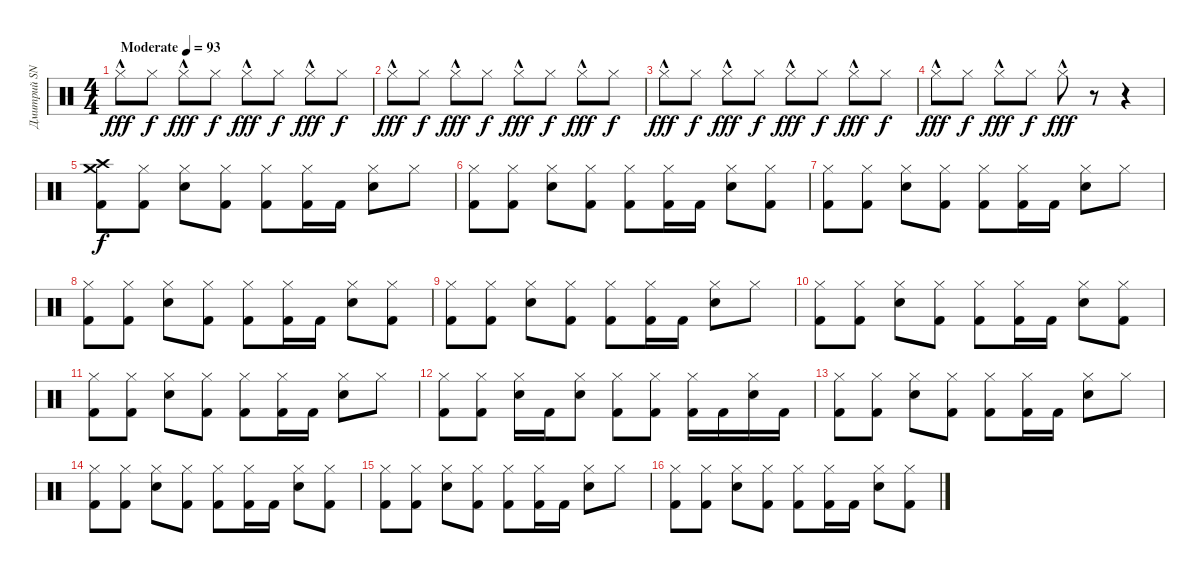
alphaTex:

\track ("Дмитрий SNAKE Хакимов" "Дмитрий SN") {instrument percussion}
\staff {score}
\articulation defaults
\ts (4 4)
\tempo (93 "Moderate")
\clef neutral
\ks c "Hi-Hat (closed)"{hac}.8{dy fff} "Hi-Hat (closed)".8{dy f} "Hi-Hat (closed)"{hac}.8{dy fff} "Hi-Hat (closed)".8{dy f} "Hi-Hat (closed)"{hac}.8{dy fff} "Hi-Hat (closed)".8{dy f} "Hi-Hat (closed)"{hac}.8{dy fff} "Hi-Hat (closed)".8{dy f}
|
"Hi-Hat (closed)"{hac}.8{dy fff} "Hi-Hat (closed)".8{dy f} "Hi-Hat (closed)"{hac}.8{dy fff} "Hi-Hat (closed)".8{dy f} "Hi-Hat (closed)"{hac}.8{dy fff} "Hi-Hat (closed)".8{dy f} "Hi-Hat (closed)"{hac}.8{dy fff} "Hi-Hat (closed)".8{dy f} |
"Hi-Hat (closed)"{hac}.8{dy fff} "Hi-Hat (closed)".8{dy f} "Hi-Hat (closed)"{hac}.8{dy fff} "Hi-Hat (closed)".8{dy f} "Hi-Hat (closed)"{hac}.8{dy fff} "Hi-Hat (closed)".8{dy f} "Hi-Hat (closed)"{hac}.8{dy fff} "Hi-Hat (closed)".8{dy f} |
"Hi-Hat (closed)"{hac}.8{dy fff} "Hi-Hat (closed)".8{dy f} "Hi-Hat (closed)"{hac}.8{dy fff} "Hi-Hat (closed)".8{dy f} "Hi-Hat (closed)"{hac}.8{dy fff} r.8 r.4 |
("Crash high (hit)" "Crash medium (hit)" "Kick (hit) 2").8{dy f} ("Hi-Hat (closed)" "Kick (hit) 2").8 ("Hi-Hat (closed)" "Electric Snare (hit)").8 ("Hi-Hat (closed)" "Kick (hit) 2").8 ("Hi-Hat (closed)" "Kick (hit) 2").8 ("Hi-Hat (closed)" "Kick (hit) 2").16 "Kick (hit) 2".16 ("Hi-Hat (closed)" "Snare (hit) 2").8 "Hi-Hat (closed)".8 |
("Hi-Hat (closed)" "Kick (hit) 2").8 ("Hi-Hat (closed)" "Kick (hit) 2").8 ("Hi-Hat (closed)" "Electric Snare (hit)").8 ("Hi-Hat (closed)" "Kick (hit) 2").8 ("Hi-Hat (closed)" "Kick (hit) 2").8 ("Hi-Hat (closed)" "Kick (hit) 2").16 "Kick (hit) 2".16 ("Hi-Hat (closed)" "Snare (hit) 2").8 ("Hi-Hat (closed)" "Kick (hit) 2").8 |
("Hi-Hat (closed)" "Kick (hit) 2").8 ("Hi-Hat (closed)" "Kick (hit) 2").8 ("Hi-Hat (closed)" "Electric Snare (hit)").8 ("Hi-Hat (closed)" "Kick (hit) 2").8 ("Hi-Hat (closed)" "Kick (hit) 2").8 ("Hi-Hat (closed)" "Kick (hit) 2").16 "Kick (hit) 2".16 ("Hi-Hat (closed)" "Snare (hit) 2").8 "Hi-Hat (closed)".8 |
("Hi-Hat (closed)" "Kick (hit) 2").8 ("Hi-Hat (closed)" "Kick (hit) 2").8 ("Hi-Hat (closed)" "Electric Snare (hit)").8 ("Hi-Hat (closed)" "Kick (hit) 2").8 ("Hi-Hat (closed)" "Kick (hit) 2").8 ("Hi-Hat (closed)" "Kick (hit) 2").16 "Kick (hit) 2".16 ("Hi-Hat (closed)" "Snare (hit) 2").8 ("Hi-Hat (closed)" "Kick (hit) 2").8 |
("Hi-Hat (closed)" "Kick (hit) 2").8 ("Hi-Hat (closed)" "Kick (hit) 2").8 ("Hi-Hat (closed)" "Electric Snare (hit)").8 ("Hi-Hat (closed)" "Kick (hit) 2").8 ("Hi-Hat (closed)" "Kick (hit) 2").8 ("Hi-Hat (closed)" "Kick (hit) 2").16 "Kick (hit) 2".16 ("Hi-Hat (closed)" "Snare (hit) 2").8 "Hi-Hat (closed)".8 |
("Hi-Hat (closed)" "Kick (hit) 2").8 ("Hi-Hat (closed)" "Kick (hit) 2").8 ("Hi-Hat (closed)" "Electric Snare (hit)").8 ("Hi-Hat (closed)" "Kick (hit) 2").8 ("Hi-Hat (closed)" "Kick (hit) 2").8 ("Hi-Hat (closed)" "Kick (hit) 2").16 "Kick (hit) 2".16 ("Hi-Hat (closed)" "Snare (hit) 2").8 ("Hi-Hat (closed)" "Kick (hit) 2").8 |
("Hi-Hat (closed)" "Kick (hit) 2").8 ("Hi-Hat (closed)" "Kick (hit) 2").8 ("Hi-Hat (closed)" "Electric Snare (hit)").8 ("Hi-Hat (closed)" "Kick (hit) 2").8 ("Hi-Hat (closed)" "Kick (hit) 2").8 ("Hi-Hat (closed)" "Kick (hit) 2").16 "Kick (hit) 2".16 ("Hi-Hat (closed)" "Snare (hit) 2").8 "Hi-Hat (closed)".8 |
("Hi-Hat (closed)" "Kick (hit) 2").8 ("Hi-Hat (closed)" "Kick (hit) 2").8 ("Hi-Hat (closed)" "Electric Snare (hit)").16 "Kick (hit) 2".16 ("Hi-Hat (closed)" "Electric Snare (hit)").8 ("Hi-Hat (closed)" "Kick (hit) 2").8 ("Hi-Hat (closed)" "Kick (hit) 2").8 ("Hi-Hat (closed)" "Kick (hit) 2").16 "Kick (hit) 2".16 ("Hi-Hat (closed)" "Snare (hit) 2").16 "Kick (hit) 2".16 |
("Hi-Hat (closed)" "Kick (hit) 2").8 ("Hi-Hat (closed)" "Kick (hit) 2").8 ("Hi-Hat (closed)" "Electric Snare (hit)").8 ("Hi-Hat (closed)" "Kick (hit) 2").8 ("Hi-Hat (closed)" "Kick (hit) 2").8 ("Hi-Hat (closed)" "Kick (hit) 2").16 "Kick (hit) 2".16 ("Hi-Hat (closed)" "Snare (hit) 2").8 "Hi-Hat (closed)".8 |
("Hi-Hat (closed)" "Kick (hit) 2").8 ("Hi-Hat (closed)" "Kick (hit) 2").8 ("Hi-Hat (closed)" "Electric Snare (hit)").8 ("Hi-Hat (closed)" "Kick (hit) 2").8 ("Hi-Hat (closed)" "Kick (hit) 2").8 ("Hi-Hat (closed)" "Kick (hit) 2").16 "Kick (hit) 2".16 ("Hi-Hat (closed)" "Snare (hit) 2").8 ("Hi-Hat (closed)" "Kick (hit) 2").8 |
("Hi-Hat (closed)" "Kick (hit) 2").8 ("Hi-Hat (closed)" "Kick (hit) 2").8 ("Hi-Hat (closed)" "Electric Snare (hit)").8 ("Hi-Hat (closed)" "Kick (hit) 2").8 ("Hi-Hat (closed)" "Kick (hit) 2").8 ("Hi-Hat (closed)" "Kick (hit) 2").16 "Kick (hit) 2".16 ("Hi-Hat (closed)" "Snare (hit) 2").8 "Hi-Hat (closed)".8 |
("Hi-Hat (closed)" "Kick (hit) 2").8 ("Hi-Hat (closed)" "Kick (hit) 2").8 ("Hi-Hat (closed)" "Electric Snare (hit)").8 ("Hi-Hat (closed)" "Kick (hit) 2").8 ("Hi-Hat (closed)" "Kick (hit) 2").8 ("Hi-Hat (closed)" "Kick (hit) 2").16 "Kick (hit) 2".16 ("Hi-Hat (closed)" "Snare (hit) 2").8 ("Hi-Hat (closed)" "Kick (hit) 2").8
